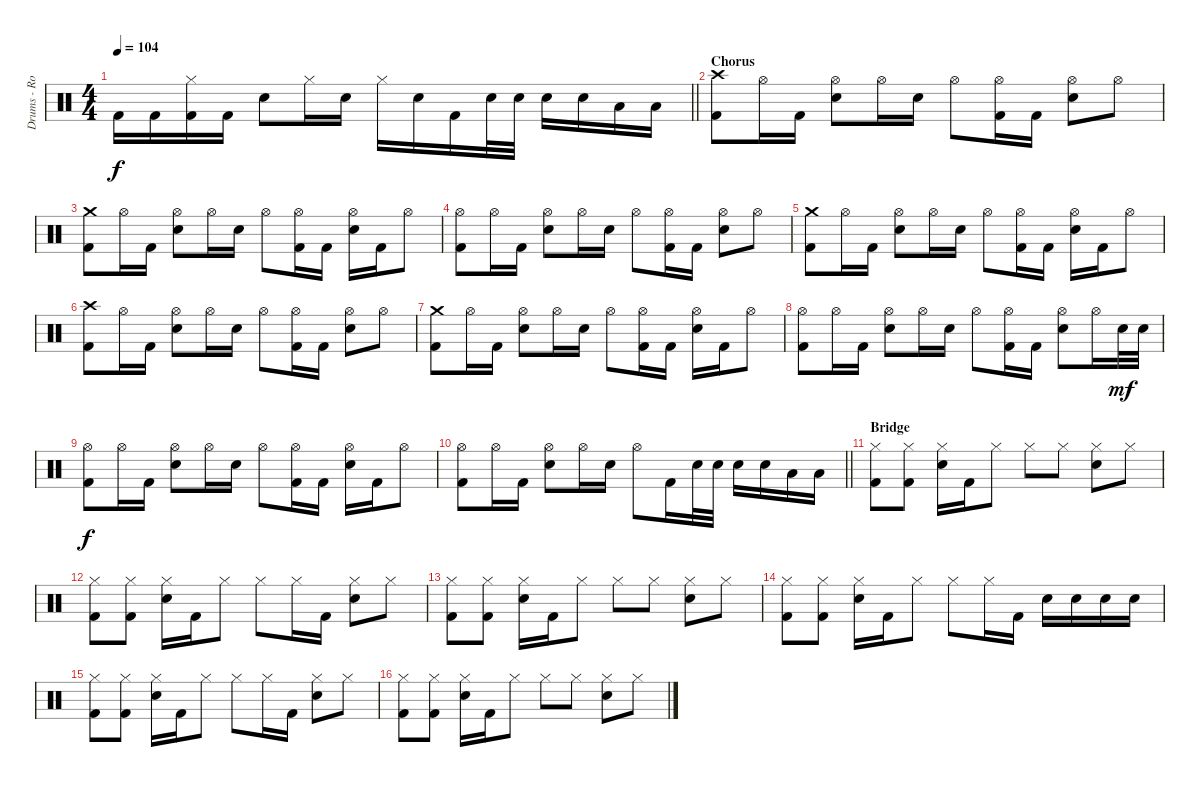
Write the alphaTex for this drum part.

\track ("Drums - Rob Bourdon" "Drums - Ro") {instrument percussion}
\staff {score}
\articulation defaults
\ts (4 4)
\tempo 104
\clef neutral
\barLineRight lightlight
\ks c "Kick (hit) 2".16{dy f} "Kick (hit) 2".16
("Hi-Hat (closed)" "Kick (hit) 2").16 "Kick (hit) 2".16 "Snare (hit) 2".8 "Hi-Hat (closed)".16 "Snare (hit) 2".16 "Hi-Hat (closed)".16 "Snare (hit) 2".16 "Kick (hit) 2".16 "Snare (hit) 2".32 "Snare (hit) 2".32 "Snare (hit) 2".16 "Snare (hit) 2".16 "Low Tom (hit)".16 "Low Tom (hit)".16 |
\section ("" "Chorus")
("Crash high (hit)" "Kick (hit) 2").8 "Hi-Hat (open)".16 "Kick (hit) 2".16 ("Hi-Hat (open)" "Snare (hit) 2").8 "Hi-Hat (open)".16 "Snare (hit) 2".16 "Hi-Hat (open)".8 ("Hi-Hat (open)" "Kick (hit) 2").16 "Kick (hit) 2".16 ("Hi-Hat (open)" "Snare (hit) 2").8 "Hi-Hat (open)".8 |
("Crash medium (hit)" "Kick (hit) 2").8 "Hi-Hat (open)".16 "Kick (hit) 2".16 ("Hi-Hat (open)" "Snare (hit) 2").8 "Hi-Hat (open)".16 "Snare (hit) 2".16 "Hi-Hat (open)".8 ("Hi-Hat (open)" "Kick (hit) 2").16 "Kick (hit) 2".16 ("Hi-Hat (open)" "Snare (hit) 2").16 "Kick (hit) 2".16 "Hi-Hat (open)".8 |
("Hi-Hat (open)" "Kick (hit) 2").8 "Hi-Hat (open)".16 "Kick (hit) 2".16 ("Hi-Hat (open)" "Snare (hit) 2").8 "Hi-Hat (open)".16 "Snare (hit) 2".16 "Hi-Hat (open)".8 ("Hi-Hat (open)" "Kick (hit) 2").16 "Kick (hit) 2".16 ("Hi-Hat (open)" "Snare (hit) 2").8 "Hi-Hat (open)".8 |
("Crash medium (hit)" "Kick (hit) 2").8 "Hi-Hat (open)".16 "Kick (hit) 2".16 ("Hi-Hat (open)" "Snare (hit) 2").8 "Hi-Hat (open)".16 "Snare (hit) 2".16 "Hi-Hat (open)".8 ("Hi-Hat (open)" "Kick (hit) 2").16 "Kick (hit) 2".16 ("Hi-Hat (open)" "Snare (hit) 2").16 "Kick (hit) 2".16 "Hi-Hat (open)".8 |
("Crash high (hit)" "Kick (hit) 2").8 "Hi-Hat (open)".16 "Kick (hit) 2".16 ("Hi-Hat (open)" "Snare (hit) 2").8 "Hi-Hat (open)".16 "Snare (hit) 2".16 "Hi-Hat (open)".8 ("Hi-Hat (open)" "Kick (hit) 2").16 "Kick (hit) 2".16 ("Hi-Hat (open)" "Snare (hit) 2").8 "Hi-Hat (open)".8 |
("Crash medium (hit)" "Kick (hit) 2").8 "Hi-Hat (open)".16 "Kick (hit) 2".16 ("Hi-Hat (open)" "Snare (hit) 2").8 "Hi-Hat (open)".16 "Snare (hit) 2".16 "Hi-Hat (open)".8 ("Hi-Hat (open)" "Kick (hit) 2").16 "Kick (hit) 2".16 ("Hi-Hat (open)" "Snare (hit) 2").16 "Kick (hit) 2".16 "Hi-Hat (open)".8 |
("Hi-Hat (open)" "Kick (hit) 2").8 "Hi-Hat (open)".16 "Kick (hit) 2".16 ("Hi-Hat (open)" "Snare (hit) 2").8 "Hi-Hat (open)".16 "Snare (hit) 2".16 "Hi-Hat (open)".8 ("Hi-Hat (open)" "Kick (hit) 2").16 "Kick (hit) 2".16 ("Hi-Hat (open)" "Snare (hit) 2").8 "Hi-Hat (open)".16 "Snare (hit) 2".32{dy mf} "Snare (hit) 2".32 |
("Hi-Hat (open)" "Kick (hit) 2").8{dy f} "Hi-Hat (open)".16 "Kick (hit) 2".16 ("Hi-Hat (open)" "Snare (hit) 2").8 "Hi-Hat (open)".16 "Snare (hit) 2".16 "Hi-Hat (open)".8 ("Hi-Hat (open)" "Kick (hit) 2").16 "Kick (hit) 2".16 ("Hi-Hat (open)" "Snare (hit) 2").16 "Kick (hit) 2".16 "Hi-Hat (open)".8 |
\barLineRight lightlight
("Hi-Hat (open)" "Kick (hit) 2").8 "Hi-Hat (open)".16 "Kick (hit) 2".16 ("Hi-Hat (open)" "Snare (hit) 2").8 "Hi-Hat (open)".16 "Snare (hit) 2".16 "Hi-Hat (open)".8 "Kick (hit) 2".16 "Snare (hit) 2".32 "Snare (hit) 2".32 "Snare (hit) 2".16 "Snare (hit) 2".16 "Low Tom (hit)".16 "Low Tom (hit)".16 |
\section ("" "Bridge")
("Hi-Hat (closed)" "Kick (hit) 2").8 ("Hi-Hat (closed)" "Kick (hit) 2").8 ("Hi-Hat (closed)" "Snare (hit) 2").16 "Kick (hit) 2".16 "Hi-Hat (closed)".8 "Hi-Hat (closed)".8 "Hi-Hat (closed)".8 ("Hi-Hat (closed)" "Snare (hit) 2").8 "Hi-Hat (closed)".8 |
("Hi-Hat (closed)" "Kick (hit) 2").8 ("Hi-Hat (closed)" "Kick (hit) 2").8 ("Hi-Hat (closed)" "Snare (hit) 2").16 "Kick (hit) 2".16 "Hi-Hat (closed)".8 "Hi-Hat (closed)".8 "Hi-Hat (closed)".16 "Kick (hit) 2".16 ("Hi-Hat (closed)" "Snare (hit) 2").8 "Hi-Hat (closed)".8 |
("Hi-Hat (closed)" "Kick (hit) 2").8 ("Hi-Hat (closed)" "Kick (hit) 2").8 ("Hi-Hat (closed)" "Snare (hit) 2").16 "Kick (hit) 2".16 "Hi-Hat (closed)".8 "Hi-Hat (closed)".8 "Hi-Hat (closed)".8 ("Hi-Hat (closed)" "Snare (hit) 2").8 "Hi-Hat (closed)".8 |
("Hi-Hat (closed)" "Kick (hit) 2").8 ("Hi-Hat (closed)" "Kick (hit) 2").8 ("Hi-Hat (closed)" "Snare (hit) 2").16 "Kick (hit) 2".16 "Hi-Hat (closed)".8 "Hi-Hat (closed)".8 "Hi-Hat (closed)".16 "Kick (hit) 2".16 "Snare (hit) 2".16 "Snare (hit) 2".16 "Snare (hit) 2".16 "Snare (hit) 2".16 |
("Hi-Hat (closed)" "Kick (hit) 2").8 ("Hi-Hat (closed)" "Kick (hit) 2").8 ("Hi-Hat (closed)" "Snare (hit) 2").16 "Kick (hit) 2".16 "Hi-Hat (closed)".8 "Hi-Hat (closed)".8 "Hi-Hat (closed)".16 "Kick (hit) 2".16 ("Hi-Hat (closed)" "Snare (hit) 2").8 "Hi-Hat (closed)".8 |
("Hi-Hat (closed)" "Kick (hit) 2").8 ("Hi-Hat (closed)" "Kick (hit) 2").8 ("Hi-Hat (closed)" "Snare (hit) 2").16 "Kick (hit) 2".16 "Hi-Hat (closed)".8 "Hi-Hat (closed)".8 "Hi-Hat (closed)".8 ("Hi-Hat (closed)" "Snare (hit) 2").8 "Hi-Hat (closed)".8
